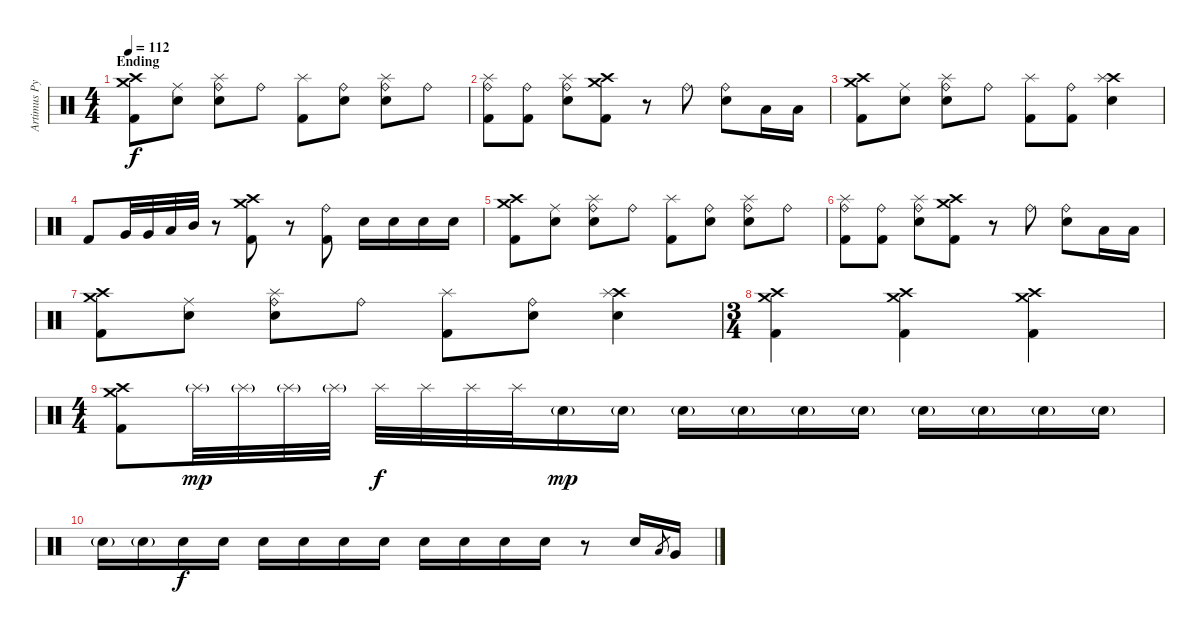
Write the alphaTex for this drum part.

\track ("Artimus Pyle" "Artimus Py") {instrument percussion}
\staff {score}
\articulation defaults
\ts (4 4)
\section ("" "Ending")
\tempo 112
\clef neutral
\ks c
("Crash medium (hit)" "Crash high (hit)" "Kick (hit) 2").8{dy f} ("Ride (middle)" "Snare (hit) 2").8 ("Ride (bell)" "Splash (hit)" "Snare (hit) 2").8 "Ride (bell)".8 ("Splash (hit)" "Kick (hit) 2").8 ("Ride (bell)" "Snare (hit) 2").8 ("Ride (bell)" "Splash (hit)" "Snare (hit) 2").8 "Ride (bell)".8 |
("Ride (bell)" "Splash (hit)" "Kick (hit) 2").8 ("Ride (bell)" "Kick (hit) 2").8 ("Ride (bell)" "Splash (hit)" "Snare (hit) 2").8 ("Crash medium (hit)" "Crash high (hit)" "Kick (hit) 2").8 r.8 "Ride (bell)".8 ("Ride (bell)" "Snare (hit) 2").8 "Low Tom (hit)".16 "Low Tom (hit)".16 |
("Crash medium (hit)" "Crash high (hit)" "Kick (hit) 2").8 ("Ride (middle)" "Snare (hit) 2").8 ("Ride (bell)" "Splash (hit)" "Snare (hit) 2").8 "Ride (bell)".8 ("Splash (hit)" "Kick (hit) 2").8 ("Ride (bell)" "Kick (hit) 2").8 ("Crash high (hit)" "Splash (hit)" "Snare (hit) 2").4 |
"Kick (hit) 2".8 "Very Low Tom (hit)".32 "Very Low Tom (hit)".32 "Low Tom (hit)".32 "Mid Tom (hit)".32 r.8 ("Crash medium (hit)" "Crash high (hit)" "Kick (hit) 2").8 r.8 ("Ride (bell)" "Kick (hit) 2").8 "Snare (hit) 2".16 "Snare (hit) 2".16 "Snare (hit) 2".16 "Snare (hit) 2".16 |
("Crash medium (hit)" "Crash high (hit)" "Kick (hit) 2").8 ("Ride (middle)" "Snare (hit) 2").8 ("Ride (bell)" "Splash (hit)" "Snare (hit) 2").8 "Ride (bell)".8 ("Splash (hit)" "Kick (hit) 2").8 ("Ride (bell)" "Snare (hit) 2").8 ("Ride (bell)" "Splash (hit)" "Snare (hit) 2").8 "Ride (bell)".8 |
("Ride (bell)" "Splash (hit)" "Kick (hit) 2").8 ("Ride (bell)" "Kick (hit) 2").8 ("Ride (bell)" "Splash (hit)" "Snare (hit) 2").8 ("Crash medium (hit)" "Crash high (hit)" "Kick (hit) 2").8 r.8 "Ride (bell)".8 ("Ride (bell)" "Snare (hit) 2").8 "Low Tom (hit)".16 "Low Tom (hit)".16 |
("Crash medium (hit)" "Crash high (hit)" "Kick (hit) 2").8 ("Ride (middle)" "Snare (hit) 2").8 ("Ride (bell)" "Splash (hit)" "Snare (hit) 2").8 "Ride (bell)".8 ("Splash (hit)" "Kick (hit) 2").8 ("Ride (bell)" "Snare (hit) 2").8 ("Crash high (hit)" "Splash (hit)" "Snare (hit) 2").4 |
\ts (3 4)
("Crash high (hit)" "Crash medium (hit)" "Kick (hit) 2").4 ("Crash high (hit)" "Crash medium (hit)" "Kick (hit) 2").4 ("Crash high (hit)" "Crash medium (hit)" "Kick (hit) 2").4 |
\ts (4 4)
("Crash high (hit)" "Crash medium (hit)" "Kick (hit) 2").8 "Splash (hit)"{g}.32{dy mp} "Splash (hit)"{g}.32 "Splash (hit)"{g}.32 "Splash (hit)"{g}.32 "Splash (hit)".32{dy f} "Splash (hit)".32 "Splash (hit)".32 "Splash (hit)".32 "Snare (hit) 2"{g}.16{dy mp} "Snare (hit) 2"{g}.16 "Snare (hit) 2"{g}.16 "Snare (hit) 2"{g}.16 "Snare (hit) 2"{g}.16 "Snare (hit) 2"{g}.16 "Snare (hit) 2"{g}.16 "Snare (hit) 2"{g}.16 "Snare (hit) 2"{g}.16 "Snare (hit) 2"{g}.16 |
"Snare (hit) 2"{g}.16 "Snare (hit) 2"{g}.16 "Snare (hit) 2".16{dy f} "Snare (hit) 2".16 "Snare (hit) 2".16 "Snare (hit) 2".16 "Snare (hit) 2".16 "Snare (hit) 2".16 "Snare (hit) 2".16 "Snare (hit) 2".16 "Snare (hit) 2".16 "Snare (hit) 2".16 r.8 "Snare (hit) 2".16 "Low Tom (hit)".8{gr} "Very Low Tom (hit)".16
